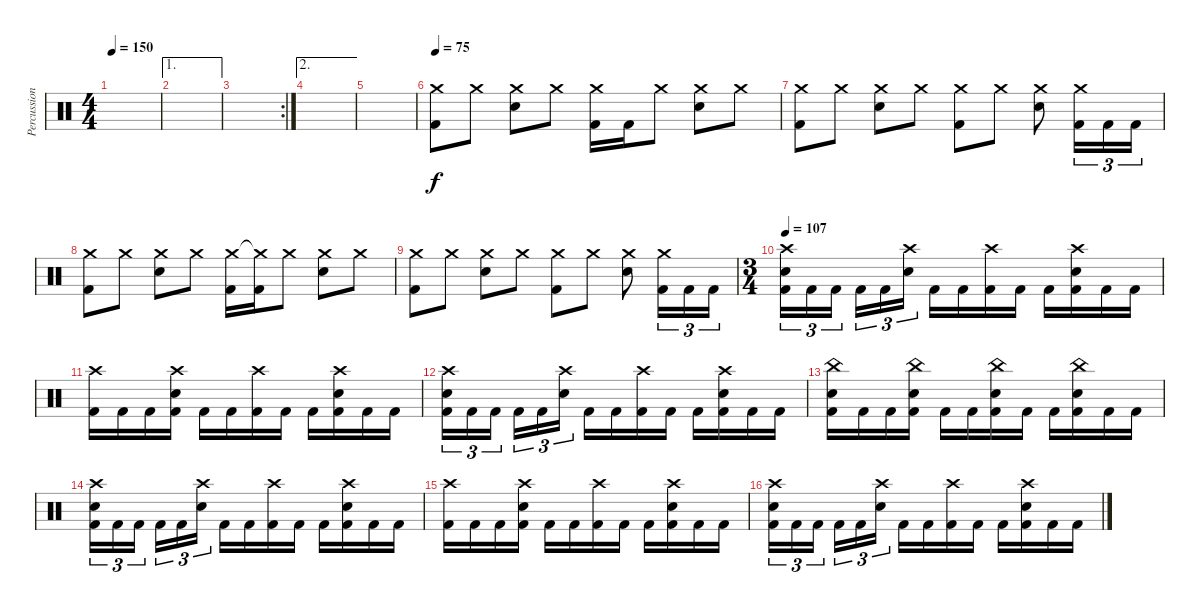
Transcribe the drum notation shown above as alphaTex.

\track ("Percussion" "Percussion") {instrument percussion}
\staff {score}
\articulation defaults
\ts (4 4)
\tempo 150
\clef neutral
\ks c
|
\ae 1
|
\rc 2
|
\ae 2
|
|
\tempo 75
("Crash medium (hit)" "Kick (hit) 2").8 "Crash medium (hit)".8 ("Crash medium (hit)" "Electric Snare (hit)").8 "Crash medium (hit)".8 ("Crash medium (hit)" "Kick (hit) 2").16 "Kick (hit) 2".16 "Crash medium (hit)".8 ("Crash medium (hit)" "Electric Snare (hit)").8 "Crash medium (hit)".8 |
("Crash medium (hit)" "Kick (hit) 2").8 "Crash medium (hit)".8 ("Crash medium (hit)" "Electric Snare (hit)").8 "Crash medium (hit)".8 ("Crash medium (hit)" "Kick (hit) 2").8 "Crash medium (hit)".8 ("Crash medium (hit)" "Electric Snare (hit)").8 ("Crash medium (hit)" "Kick (hit) 2").16{tu (3 2)} "Kick (hit) 2".16{tu (3 2)} "Kick (hit) 2".16{tu (3 2)} |
("Crash medium (hit)" "Kick (hit) 2").8 "Crash medium (hit)".8 ("Crash medium (hit)" "Electric Snare (hit)").8 "Crash medium (hit)".8 ("Crash medium (hit)" "Kick (hit) 2").16 ("Crash medium (hit)"{t} "Kick (hit) 2").16 "Crash medium (hit)".8 ("Crash medium (hit)" "Electric Snare (hit)").8 "Crash medium (hit)".8 |
("Crash medium (hit)" "Kick (hit) 2").8 "Crash medium (hit)".8 ("Crash medium (hit)" "Electric Snare (hit)").8 "Crash medium (hit)".8 ("Crash medium (hit)" "Kick (hit) 2").8 "Crash medium (hit)".8 ("Crash medium (hit)" "Electric Snare (hit)").8 ("Crash medium (hit)" "Kick (hit) 2").16{tu (3 2)} "Kick (hit) 2".16{tu (3 2)} "Kick (hit) 2".16{tu (3 2)} |
\ts (3 4)
\tempo 107
("Crash high (hit)" "Electric Snare (hit)" "Kick (hit) 2").16{tu (3 2)} "Kick (hit) 2".16{tu (3 2)} "Kick (hit) 2".16{tu (3 2) beam splitsecondary} "Kick (hit) 2".16{tu (3 2)} "Kick (hit) 2".16{tu (3 2)} ("Crash high (hit)" "Electric Snare (hit)").16{tu (3 2)} "Kick (hit) 2".16 "Kick (hit) 2".16 ("Crash high (hit)" "Kick (hit) 2").16 "Kick (hit) 2".16 "Kick (hit) 2".16 ("Crash high (hit)" "Electric Snare (hit)" "Kick (hit) 2").16 "Kick (hit) 2".16 "Kick (hit) 2".16 |
("Crash high (hit)" "Kick (hit) 2").16 "Kick (hit) 2".16 "Kick (hit) 2".16 ("Crash high (hit)" "Electric Snare (hit)" "Kick (hit) 2").16 "Kick (hit) 2".16 "Kick (hit) 2".16 ("Crash high (hit)" "Kick (hit) 2").16 "Kick (hit) 2".16 "Kick (hit) 2".16 ("Crash high (hit)" "Electric Snare (hit)" "Kick (hit) 2").16 "Kick (hit) 2".16 "Kick (hit) 2".16 |
("Crash high (hit)" "Electric Snare (hit)" "Kick (hit) 2").16{tu (3 2)} "Kick (hit) 2".16{tu (3 2)} "Kick (hit) 2".16{tu (3 2) beam splitsecondary} "Kick (hit) 2".16{tu (3 2)} "Kick (hit) 2".16{tu (3 2)} ("Crash high (hit)" "Electric Snare (hit)").16{tu (3 2)} "Kick (hit) 2".16 "Kick (hit) 2".16 ("Crash high (hit)" "Kick (hit) 2").16 "Kick (hit) 2".16 "Kick (hit) 2".16 ("Crash high (hit)" "Electric Snare (hit)" "Kick (hit) 2").16 "Kick (hit) 2".16 "Kick (hit) 2".16 |
("Electric Snare (hit)" "China (hit)" "Kick (hit) 2").16 "Kick (hit) 2".16 "Kick (hit) 2".16 ("Electric Snare (hit)" "China (hit)" "Kick (hit) 2").16 "Kick (hit) 2".16 "Kick (hit) 2".16 ("Electric Snare (hit)" "China (hit)" "Kick (hit) 2").16 "Kick (hit) 2".16 "Kick (hit) 2".16 ("Electric Snare (hit)" "China (hit)" "Kick (hit) 2").16 "Kick (hit) 2".16 "Kick (hit) 2".16 |
("Crash high (hit)" "Electric Snare (hit)" "Kick (hit) 2").16{tu (3 2)} "Kick (hit) 2".16{tu (3 2)} "Kick (hit) 2".16{tu (3 2) beam splitsecondary} "Kick (hit) 2".16{tu (3 2)} "Kick (hit) 2".16{tu (3 2)} ("Crash high (hit)" "Electric Snare (hit)").16{tu (3 2)} "Kick (hit) 2".16 "Kick (hit) 2".16 ("Crash high (hit)" "Kick (hit) 2").16 "Kick (hit) 2".16 "Kick (hit) 2".16 ("Crash high (hit)" "Electric Snare (hit)" "Kick (hit) 2").16 "Kick (hit) 2".16 "Kick (hit) 2".16 |
("Crash high (hit)" "Kick (hit) 2").16 "Kick (hit) 2".16 "Kick (hit) 2".16 ("Crash high (hit)" "Electric Snare (hit)" "Kick (hit) 2").16 "Kick (hit) 2".16 "Kick (hit) 2".16 ("Crash high (hit)" "Kick (hit) 2").16 "Kick (hit) 2".16 "Kick (hit) 2".16 ("Crash high (hit)" "Electric Snare (hit)" "Kick (hit) 2").16 "Kick (hit) 2".16 "Kick (hit) 2".16 |
("Crash high (hit)" "Electric Snare (hit)" "Kick (hit) 2").16{tu (3 2)} "Kick (hit) 2".16{tu (3 2)} "Kick (hit) 2".16{tu (3 2) beam splitsecondary} "Kick (hit) 2".16{tu (3 2)} "Kick (hit) 2".16{tu (3 2)} ("Crash high (hit)" "Electric Snare (hit)").16{tu (3 2)} "Kick (hit) 2".16 "Kick (hit) 2".16 ("Crash high (hit)" "Kick (hit) 2").16 "Kick (hit) 2".16 "Kick (hit) 2".16 ("Crash high (hit)" "Electric Snare (hit)" "Kick (hit) 2").16 "Kick (hit) 2".16 "Kick (hit) 2".16
